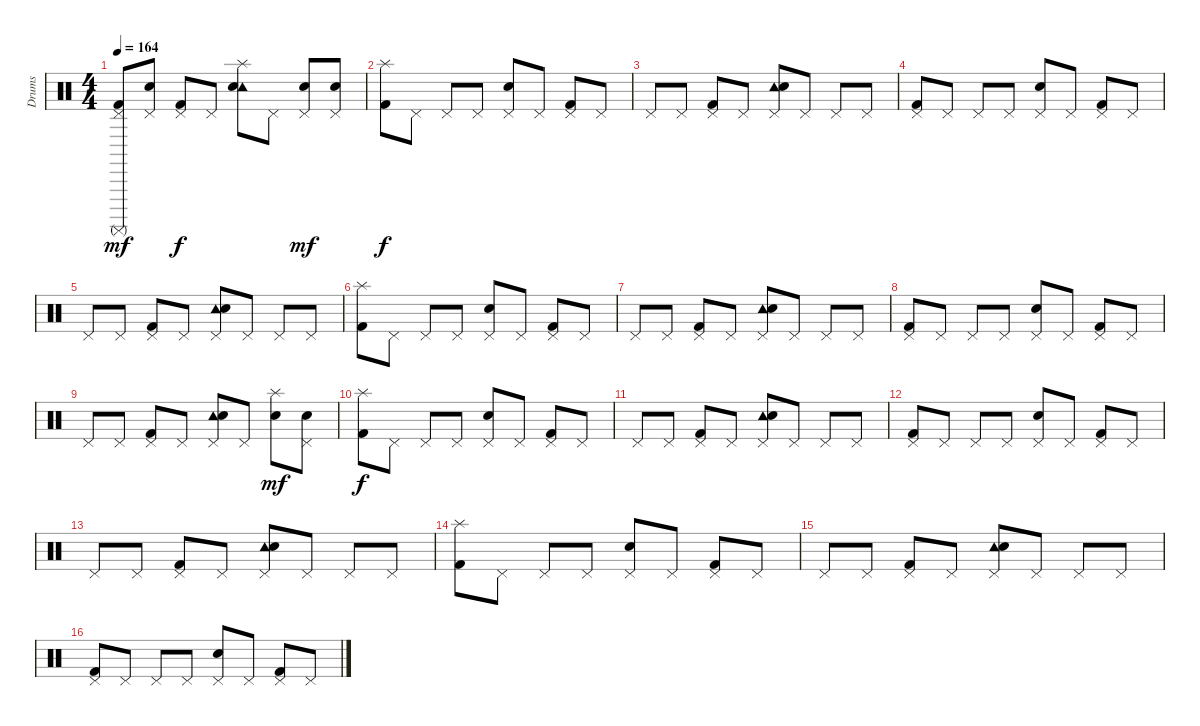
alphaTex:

\track ("Drums" "Drums") {instrument percussion}
\staff {score}
\articulation defaults
\ts (4 4)
\tempo 164
\clef neutral
\ks c
("Pedal Hi-Hat (hit)" "Kick (hit) 2" "Surdo (mute)").8{dy mf} ("Pedal Hi-Hat (hit)" "Snare (hit) 2").8 ("Pedal Hi-Hat (hit)" "Kick (hit) 2").8{dy f} "Pedal Hi-Hat (hit)".8 ("Tambourine (hit)" "Splash (hit)" "Snare (hit) 2").8 "Pedal Hi-Hat (hit)".8 ("Pedal Hi-Hat (hit)" "Snare (hit) 2").8{dy mf} ("Pedal Hi-Hat (hit)" "Snare (hit) 2").8 |
("Splash (hit)" "Kick (hit) 2").8{dy f} "Pedal Hi-Hat (hit)".8 "Pedal Hi-Hat (hit)".8 "Pedal Hi-Hat (hit)".8 ("Pedal Hi-Hat (hit)" "Snare (hit) 2").8 "Pedal Hi-Hat (hit)".8 ("Pedal Hi-Hat (hit)" "Kick (hit) 2").8 "Pedal Hi-Hat (hit)".8 |
"Pedal Hi-Hat (hit)".8 "Pedal Hi-Hat (hit)".8 ("Pedal Hi-Hat (hit)" "Kick (hit) 2").8 "Pedal Hi-Hat (hit)".8 ("Tambourine (hit)" "Pedal Hi-Hat (hit)" "Snare (hit) 2").8 "Pedal Hi-Hat (hit)".8 "Pedal Hi-Hat (hit)".8 "Pedal Hi-Hat (hit)".8 |
("Pedal Hi-Hat (hit)" "Kick (hit) 2").8 "Pedal Hi-Hat (hit)".8 "Pedal Hi-Hat (hit)".8 "Pedal Hi-Hat (hit)".8 ("Pedal Hi-Hat (hit)" "Snare (hit) 2").8 "Pedal Hi-Hat (hit)".8 ("Pedal Hi-Hat (hit)" "Kick (hit) 2").8 "Pedal Hi-Hat (hit)".8 |
"Pedal Hi-Hat (hit)".8 "Pedal Hi-Hat (hit)".8 ("Pedal Hi-Hat (hit)" "Kick (hit) 2").8 "Pedal Hi-Hat (hit)".8 ("Tambourine (hit)" "Pedal Hi-Hat (hit)" "Snare (hit) 2").8 "Pedal Hi-Hat (hit)".8 "Pedal Hi-Hat (hit)".8 "Pedal Hi-Hat (hit)".8 |
("Splash (hit)" "Kick (hit) 2").8 "Pedal Hi-Hat (hit)".8 "Pedal Hi-Hat (hit)".8 "Pedal Hi-Hat (hit)".8 ("Pedal Hi-Hat (hit)" "Snare (hit) 2").8 "Pedal Hi-Hat (hit)".8 ("Pedal Hi-Hat (hit)" "Kick (hit) 2").8 "Pedal Hi-Hat (hit)".8 |
"Pedal Hi-Hat (hit)".8 "Pedal Hi-Hat (hit)".8 ("Pedal Hi-Hat (hit)" "Kick (hit) 2").8 "Pedal Hi-Hat (hit)".8 ("Tambourine (hit)" "Pedal Hi-Hat (hit)" "Snare (hit) 2").8 "Pedal Hi-Hat (hit)".8 "Pedal Hi-Hat (hit)".8 "Pedal Hi-Hat (hit)".8 |
("Pedal Hi-Hat (hit)" "Kick (hit) 2").8 "Pedal Hi-Hat (hit)".8 "Pedal Hi-Hat (hit)".8 "Pedal Hi-Hat (hit)".8 ("Pedal Hi-Hat (hit)" "Snare (hit) 2").8 "Pedal Hi-Hat (hit)".8 ("Pedal Hi-Hat (hit)" "Kick (hit) 2").8 "Pedal Hi-Hat (hit)".8 |
"Pedal Hi-Hat (hit)".8 "Pedal Hi-Hat (hit)".8 ("Pedal Hi-Hat (hit)" "Kick (hit) 2").8 "Pedal Hi-Hat (hit)".8 ("Tambourine (hit)" "Pedal Hi-Hat (hit)" "Snare (hit) 2").8 "Pedal Hi-Hat (hit)".8 ("Splash (hit)" "Snare (hit) 2").8{dy mf} ("Pedal Hi-Hat (hit)" "Snare (hit) 2").8 |
("Splash (hit)" "Kick (hit) 2").8{dy f} "Pedal Hi-Hat (hit)".8 "Pedal Hi-Hat (hit)".8 "Pedal Hi-Hat (hit)".8 ("Pedal Hi-Hat (hit)" "Snare (hit) 2").8 "Pedal Hi-Hat (hit)".8 ("Pedal Hi-Hat (hit)" "Kick (hit) 2").8 "Pedal Hi-Hat (hit)".8 |
"Pedal Hi-Hat (hit)".8 "Pedal Hi-Hat (hit)".8 ("Pedal Hi-Hat (hit)" "Kick (hit) 2").8 "Pedal Hi-Hat (hit)".8 ("Tambourine (hit)" "Pedal Hi-Hat (hit)" "Snare (hit) 2").8 "Pedal Hi-Hat (hit)".8 "Pedal Hi-Hat (hit)".8 "Pedal Hi-Hat (hit)".8 |
("Pedal Hi-Hat (hit)" "Kick (hit) 2").8 "Pedal Hi-Hat (hit)".8 "Pedal Hi-Hat (hit)".8 "Pedal Hi-Hat (hit)".8 ("Pedal Hi-Hat (hit)" "Snare (hit) 2").8 "Pedal Hi-Hat (hit)".8 ("Pedal Hi-Hat (hit)" "Kick (hit) 2").8 "Pedal Hi-Hat (hit)".8 |
"Pedal Hi-Hat (hit)".8 "Pedal Hi-Hat (hit)".8 ("Pedal Hi-Hat (hit)" "Kick (hit) 2").8 "Pedal Hi-Hat (hit)".8 ("Tambourine (hit)" "Pedal Hi-Hat (hit)" "Snare (hit) 2").8 "Pedal Hi-Hat (hit)".8 "Pedal Hi-Hat (hit)".8 "Pedal Hi-Hat (hit)".8 |
("Splash (hit)" "Kick (hit) 2").8 "Pedal Hi-Hat (hit)".8 "Pedal Hi-Hat (hit)".8 "Pedal Hi-Hat (hit)".8 ("Pedal Hi-Hat (hit)" "Snare (hit) 2").8 "Pedal Hi-Hat (hit)".8 ("Pedal Hi-Hat (hit)" "Kick (hit) 2").8 "Pedal Hi-Hat (hit)".8 |
"Pedal Hi-Hat (hit)".8 "Pedal Hi-Hat (hit)".8 ("Pedal Hi-Hat (hit)" "Kick (hit) 2").8 "Pedal Hi-Hat (hit)".8 ("Tambourine (hit)" "Pedal Hi-Hat (hit)" "Snare (hit) 2").8 "Pedal Hi-Hat (hit)".8 "Pedal Hi-Hat (hit)".8 "Pedal Hi-Hat (hit)".8 |
("Pedal Hi-Hat (hit)" "Kick (hit) 2").8 "Pedal Hi-Hat (hit)".8 "Pedal Hi-Hat (hit)".8 "Pedal Hi-Hat (hit)".8 ("Pedal Hi-Hat (hit)" "Snare (hit) 2").8 "Pedal Hi-Hat (hit)".8 ("Pedal Hi-Hat (hit)" "Kick (hit) 2").8 "Pedal Hi-Hat (hit)".8
